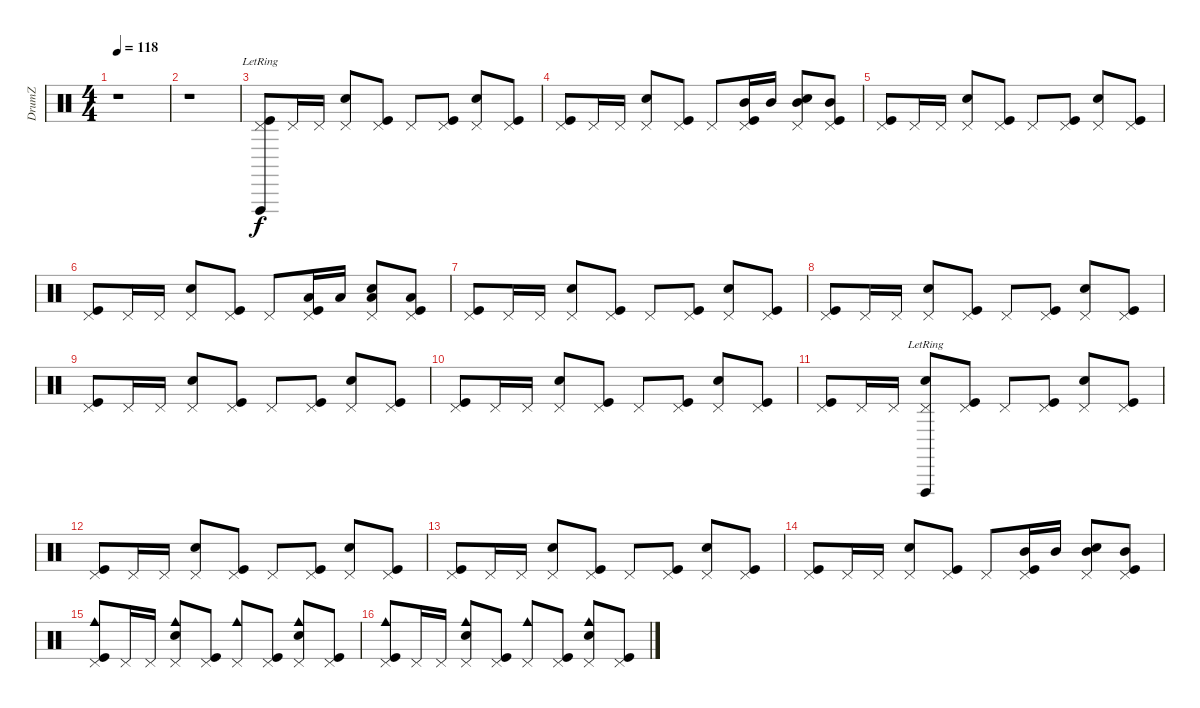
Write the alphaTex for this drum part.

\track ("DrumZ" "DrumZ") {instrument percussion}
\staff {score}
\articulation defaults
\ts (4 4)
\tempo 118
\clef neutral
\ks c
r.1{dy f} |
r.1 |
("Vibraslap (hit)"{lr} "Pedal Hi-Hat (hit)" "Kick (hit)").8 "Pedal Hi-Hat (hit)".16 "Pedal Hi-Hat (hit)".16 ("Pedal Hi-Hat (hit)" "Snare (hit) 2").8 ("Pedal Hi-Hat (hit)" "Kick (hit)").8 "Pedal Hi-Hat (hit)".8 ("Pedal Hi-Hat (hit)" "Kick (hit)").8 ("Pedal Hi-Hat (hit)" "Snare (hit) 2").8 ("Pedal Hi-Hat (hit)" "Kick (hit)").8 |
("Pedal Hi-Hat (hit)" "Kick (hit)").8 "Pedal Hi-Hat (hit)".16 "Pedal Hi-Hat (hit)".16 ("Pedal Hi-Hat (hit)" "Snare (hit) 2").8 ("Pedal Hi-Hat (hit)" "Kick (hit)").8 "Pedal Hi-Hat (hit)".8 ("Mid Tom (hit)" "Pedal Hi-Hat (hit)" "Kick (hit)").16 "Mid Tom (hit)".16 ("Mid Tom (hit)" "Pedal Hi-Hat (hit)" "Snare (hit) 2").8 ("Mid Tom (hit)" "Pedal Hi-Hat (hit)" "Kick (hit)").8 |
("Pedal Hi-Hat (hit)" "Kick (hit)").8 "Pedal Hi-Hat (hit)".16 "Pedal Hi-Hat (hit)".16 ("Pedal Hi-Hat (hit)" "Snare (hit) 2").8 ("Pedal Hi-Hat (hit)" "Kick (hit)").8 "Pedal Hi-Hat (hit)".8 ("Pedal Hi-Hat (hit)" "Kick (hit)").8 ("Pedal Hi-Hat (hit)" "Snare (hit) 2").8 ("Pedal Hi-Hat (hit)" "Kick (hit)").8 |
("Pedal Hi-Hat (hit)" "Kick (hit)").8 "Pedal Hi-Hat (hit)".16 "Pedal Hi-Hat (hit)".16 ("Pedal Hi-Hat (hit)" "Snare (hit) 2").8 ("Pedal Hi-Hat (hit)" "Kick (hit)").8 "Pedal Hi-Hat (hit)".8 ("Low Tom (hit)" "Pedal Hi-Hat (hit)" "Kick (hit)").16 "Low Tom (hit)".16 ("Low Tom (hit)" "Pedal Hi-Hat (hit)" "Snare (hit) 2").8 ("Low Tom (hit)" "Pedal Hi-Hat (hit)" "Kick (hit)").8 |
("Pedal Hi-Hat (hit)" "Kick (hit)").8 "Pedal Hi-Hat (hit)".16 "Pedal Hi-Hat (hit)".16 ("Pedal Hi-Hat (hit)" "Snare (hit) 2").8 ("Pedal Hi-Hat (hit)" "Kick (hit)").8 "Pedal Hi-Hat (hit)".8 ("Pedal Hi-Hat (hit)" "Kick (hit)").8 ("Pedal Hi-Hat (hit)" "Snare (hit) 2").8 ("Pedal Hi-Hat (hit)" "Kick (hit)").8 |
("Pedal Hi-Hat (hit)" "Kick (hit)").8 "Pedal Hi-Hat (hit)".16 "Pedal Hi-Hat (hit)".16 ("Pedal Hi-Hat (hit)" "Snare (hit) 2").8 ("Pedal Hi-Hat (hit)" "Kick (hit)").8 "Pedal Hi-Hat (hit)".8 ("Pedal Hi-Hat (hit)" "Kick (hit)").8 ("Pedal Hi-Hat (hit)" "Snare (hit) 2").8 ("Pedal Hi-Hat (hit)" "Kick (hit)").8 |
("Pedal Hi-Hat (hit)" "Kick (hit)").8 "Pedal Hi-Hat (hit)".16 "Pedal Hi-Hat (hit)".16 ("Pedal Hi-Hat (hit)" "Snare (hit) 2").8 ("Pedal Hi-Hat (hit)" "Kick (hit)").8 "Pedal Hi-Hat (hit)".8 ("Pedal Hi-Hat (hit)" "Kick (hit)").8 ("Pedal Hi-Hat (hit)" "Snare (hit) 2").8 ("Pedal Hi-Hat (hit)" "Kick (hit)").8 |
("Pedal Hi-Hat (hit)" "Kick (hit)").8 "Pedal Hi-Hat (hit)".16 "Pedal Hi-Hat (hit)".16 ("Pedal Hi-Hat (hit)" "Snare (hit) 2").8 ("Pedal Hi-Hat (hit)" "Kick (hit)").8 "Pedal Hi-Hat (hit)".8 ("Pedal Hi-Hat (hit)" "Kick (hit)").8 ("Pedal Hi-Hat (hit)" "Snare (hit) 2").8 ("Pedal Hi-Hat (hit)" "Kick (hit)").8 |
("Pedal Hi-Hat (hit)" "Kick (hit)").8 "Pedal Hi-Hat (hit)".16 "Pedal Hi-Hat (hit)".16 ("Vibraslap (hit)"{lr} "Pedal Hi-Hat (hit)" "Snare (hit) 2").8 ("Pedal Hi-Hat (hit)" "Kick (hit)").8 "Pedal Hi-Hat (hit)".8 ("Pedal Hi-Hat (hit)" "Kick (hit)").8 ("Pedal Hi-Hat (hit)" "Snare (hit) 2").8 ("Pedal Hi-Hat (hit)" "Kick (hit)").8 |
("Pedal Hi-Hat (hit)" "Kick (hit)").8 "Pedal Hi-Hat (hit)".16 "Pedal Hi-Hat (hit)".16 ("Pedal Hi-Hat (hit)" "Snare (hit) 2").8 ("Pedal Hi-Hat (hit)" "Kick (hit)").8 "Pedal Hi-Hat (hit)".8 ("Pedal Hi-Hat (hit)" "Kick (hit)").8 ("Pedal Hi-Hat (hit)" "Snare (hit) 2").8 ("Pedal Hi-Hat (hit)" "Kick (hit)").8 |
("Pedal Hi-Hat (hit)" "Kick (hit)").8 "Pedal Hi-Hat (hit)".16 "Pedal Hi-Hat (hit)".16 ("Pedal Hi-Hat (hit)" "Snare (hit) 2").8 ("Pedal Hi-Hat (hit)" "Kick (hit)").8 "Pedal Hi-Hat (hit)".8 ("Pedal Hi-Hat (hit)" "Kick (hit)").8 ("Pedal Hi-Hat (hit)" "Snare (hit) 2").8 ("Pedal Hi-Hat (hit)" "Kick (hit)").8 |
("Pedal Hi-Hat (hit)" "Kick (hit)").8 "Pedal Hi-Hat (hit)".16 "Pedal Hi-Hat (hit)".16 ("Pedal Hi-Hat (hit)" "Snare (hit) 2").8 ("Pedal Hi-Hat (hit)" "Kick (hit)").8 "Pedal Hi-Hat (hit)".8 ("Mid Tom (hit)" "Pedal Hi-Hat (hit)" "Kick (hit)").16 "Mid Tom (hit)".16 ("Mid Tom (hit)" "Pedal Hi-Hat (hit)" "Snare (hit) 2").8 ("Mid Tom (hit)" "Pedal Hi-Hat (hit)" "Kick (hit)").8 |
("Cowbell medium (hit)" "Pedal Hi-Hat (hit)" "Kick (hit)").8 "Pedal Hi-Hat (hit)".16 "Pedal Hi-Hat (hit)".16 ("Cowbell medium (hit)" "Pedal Hi-Hat (hit)" "Snare (hit) 2").8 ("Pedal Hi-Hat (hit)" "Kick (hit)").8 ("Cowbell medium (hit)" "Pedal Hi-Hat (hit)").8 ("Pedal Hi-Hat (hit)" "Kick (hit)").8 ("Cowbell medium (hit)" "Pedal Hi-Hat (hit)" "Snare (hit) 2").8 ("Pedal Hi-Hat (hit)" "Kick (hit)").8 |
("Cowbell medium (hit)" "Pedal Hi-Hat (hit)" "Kick (hit)").8 "Pedal Hi-Hat (hit)".16 "Pedal Hi-Hat (hit)".16 ("Cowbell medium (hit)" "Pedal Hi-Hat (hit)" "Snare (hit) 2").8 ("Pedal Hi-Hat (hit)" "Kick (hit)").8 ("Cowbell medium (hit)" "Pedal Hi-Hat (hit)").8 ("Pedal Hi-Hat (hit)" "Kick (hit)").8 ("Cowbell medium (hit)" "Pedal Hi-Hat (hit)" "Snare (hit) 2").8 ("Pedal Hi-Hat (hit)" "Kick (hit)").8
